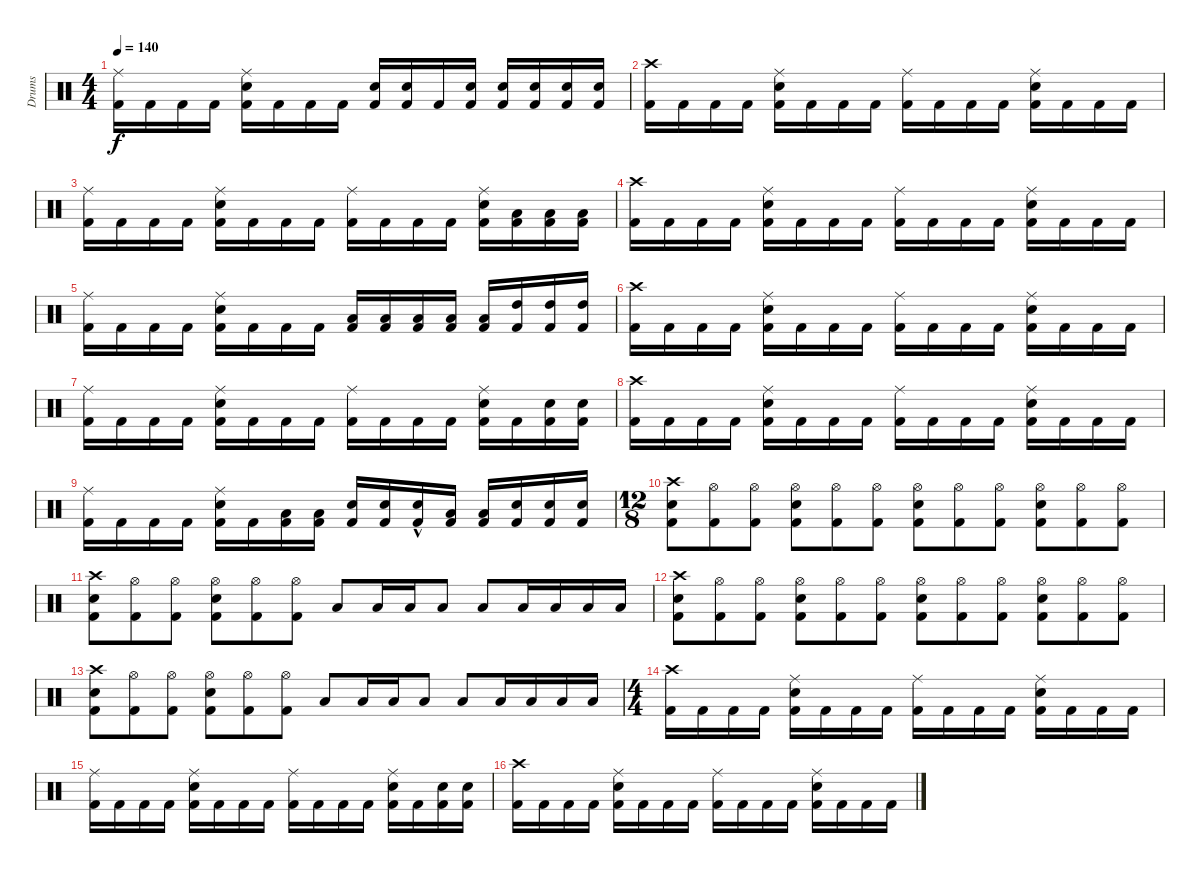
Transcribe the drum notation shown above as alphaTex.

\track ("Drums" "Drums") {instrument percussion}
\staff {score}
\articulation defaults
\ts (4 4)
\tempo 140
\clef neutral
\ks c
("Ride (middle)" "Kick (hit) 2").16{dy f} "Kick (hit) 2".16 "Kick (hit) 2".16 "Kick (hit) 2".16 ("Kick (hit) 2" "Ride (middle)" "Snare (hit) 2").16 "Kick (hit) 2".16 "Kick (hit) 2".16 "Kick (hit) 2".16 ("Snare (hit) 2" "Kick (hit) 2").16 ("Kick (hit) 2" "Snare (hit) 2").16 "Kick (hit) 2".16 ("Kick (hit) 2" "Snare (hit) 2").16 ("Snare (hit) 2" "Kick (hit) 2").16 ("Snare (hit) 2" "Kick (hit) 2").16 ("Snare (hit) 2" "Kick (hit) 2").16 ("Snare (hit) 2" "Kick (hit) 2").16 |
("Crash high (hit)" "Kick (hit) 2").16 "Kick (hit) 2".16 "Kick (hit) 2".16 "Kick (hit) 2".16 ("Kick (hit) 2" "Ride (middle)" "Snare (hit) 2").16 "Kick (hit) 2".16 "Kick (hit) 2".16 "Kick (hit) 2".16 ("Ride (middle)" "Kick (hit) 2").16 "Kick (hit) 2".16 "Kick (hit) 2".16 "Kick (hit) 2".16 ("Kick (hit) 2" "Ride (middle)" "Snare (hit) 2").16 "Kick (hit) 2".16 "Kick (hit) 2".16 "Kick (hit) 2".16 |
("Ride (middle)" "Kick (hit) 2").16 "Kick (hit) 2".16 "Kick (hit) 2".16 "Kick (hit) 2".16 ("Kick (hit) 2" "Ride (middle)" "Snare (hit) 2").16 "Kick (hit) 2".16 "Kick (hit) 2".16 "Kick (hit) 2".16 ("Ride (middle)" "Kick (hit) 2").16 "Kick (hit) 2".16 "Kick (hit) 2".16 "Kick (hit) 2".16 ("Kick (hit) 2" "Ride (middle)" "Snare (hit) 2").16 ("Low Tom (hit)" "Kick (hit) 2").16 ("Kick (hit) 2" "Low Tom (hit)").16 ("Low Tom (hit)" "Kick (hit) 2").16 |
("Crash high (hit)" "Kick (hit) 2").16 "Kick (hit) 2".16 "Kick (hit) 2".16 "Kick (hit) 2".16 ("Kick (hit) 2" "Ride (middle)" "Snare (hit) 2").16 "Kick (hit) 2".16 "Kick (hit) 2".16 "Kick (hit) 2".16 ("Ride (middle)" "Kick (hit) 2").16 "Kick (hit) 2".16 "Kick (hit) 2".16 "Kick (hit) 2".16 ("Kick (hit) 2" "Ride (middle)" "Snare (hit) 2").16 "Kick (hit) 2".16 "Kick (hit) 2".16 "Kick (hit) 2".16 |
("Ride (middle)" "Kick (hit) 2").16 "Kick (hit) 2".16 "Kick (hit) 2".16 "Kick (hit) 2".16 ("Kick (hit) 2" "Ride (middle)" "Snare (hit) 2").16 "Kick (hit) 2".16 "Kick (hit) 2".16 "Kick (hit) 2".16 ("Low Tom (hit)" "Kick (hit) 2").16 ("Kick (hit) 2" "Low Tom (hit)").16 ("Low Tom (hit)" "Kick (hit) 2").16 ("Low Tom (hit)" "Kick (hit) 2").16 ("Low Tom (hit)" "Kick (hit) 2").16 ("High Tom (hit)" "Kick (hit) 2").16 ("High Tom (hit)" "Kick (hit) 2").16 ("High Tom (hit)" "Kick (hit) 2").16 |
("Crash high (hit)" "Kick (hit) 2").16 "Kick (hit) 2".16 "Kick (hit) 2".16 "Kick (hit) 2".16 ("Kick (hit) 2" "Ride (middle)" "Snare (hit) 2").16 "Kick (hit) 2".16 "Kick (hit) 2".16 "Kick (hit) 2".16 ("Ride (middle)" "Kick (hit) 2").16 "Kick (hit) 2".16 "Kick (hit) 2".16 "Kick (hit) 2".16 ("Kick (hit) 2" "Ride (middle)" "Snare (hit) 2").16 "Kick (hit) 2".16 "Kick (hit) 2".16 "Kick (hit) 2".16 |
("Ride (middle)" "Kick (hit) 2").16 "Kick (hit) 2".16 "Kick (hit) 2".16 "Kick (hit) 2".16 ("Kick (hit) 2" "Ride (middle)" "Snare (hit) 2").16 "Kick (hit) 2".16 "Kick (hit) 2".16 "Kick (hit) 2".16 ("Ride (middle)" "Kick (hit) 2").16 "Kick (hit) 2".16 "Kick (hit) 2".16 "Kick (hit) 2".16 ("Kick (hit) 2" "Ride (middle)" "Snare (hit) 2").16 "Kick (hit) 2".16 ("Snare (hit) 2" "Kick (hit) 2").16 ("Kick (hit) 2" "Snare (hit) 2").16 |
("Crash high (hit)" "Kick (hit) 2").16 "Kick (hit) 2".16 "Kick (hit) 2".16 "Kick (hit) 2".16 ("Kick (hit) 2" "Ride (middle)" "Snare (hit) 2").16 "Kick (hit) 2".16 "Kick (hit) 2".16 "Kick (hit) 2".16 ("Ride (middle)" "Kick (hit) 2").16 "Kick (hit) 2".16 "Kick (hit) 2".16 "Kick (hit) 2".16 ("Kick (hit) 2" "Ride (middle)" "Snare (hit) 2").16 "Kick (hit) 2".16 "Kick (hit) 2".16 "Kick (hit) 2".16 |
("Ride (middle)" "Kick (hit) 2").16 "Kick (hit) 2".16 "Kick (hit) 2".16 "Kick (hit) 2".16 ("Kick (hit) 2" "Ride (middle)" "Snare (hit) 2").16 "Kick (hit) 2".16 ("Low Floor Tom (hit)" "Kick (hit) 2").16 ("Kick (hit) 2" "Low Floor Tom (hit)").16 ("Snare (hit) 2" "Kick (hit) 2").16 ("Snare (hit) 2" "Kick (hit) 2").16 ("Snare (hit) 2"{hac} "Kick (hit) 2").16 ("Low Tom (hit)" "Kick (hit) 2").16 ("Low Tom (hit)" "Kick (hit) 2").16 ("Snare (hit) 2" "Kick (hit) 2").16 ("Snare (hit) 2" "Kick (hit) 2").16 ("Snare (hit) 2" "Kick (hit) 2").16 |
\ts (12 8)
("Snare (hit) 2" "Crash high (hit)" "Kick (hit) 2").8 ("Kick (hit) 2" "Hi-Hat (open)").8 ("Hi-Hat (open)" "Kick (hit) 2").8 ("Snare (hit) 2" "Hi-Hat (open)" "Kick (hit) 2").8 ("Kick (hit) 2" "Hi-Hat (open)").8 ("Hi-Hat (open)" "Kick (hit) 2").8 ("Snare (hit) 2" "Hi-Hat (open)" "Kick (hit) 2").8 ("Kick (hit) 2" "Hi-Hat (open)").8 ("Hi-Hat (open)" "Kick (hit) 2").8 ("Snare (hit) 2" "Hi-Hat (open)" "Kick (hit) 2").8 ("Kick (hit) 2" "Hi-Hat (open)").8 ("Hi-Hat (open)" "Kick (hit) 2").8 |
("Snare (hit) 2" "Crash high (hit)" "Kick (hit) 2").8 ("Kick (hit) 2" "Hi-Hat (open)").8 ("Hi-Hat (open)" "Kick (hit) 2").8 ("Snare (hit) 2" "Hi-Hat (open)" "Kick (hit) 2").8 ("Kick (hit) 2" "Hi-Hat (open)").8 ("Hi-Hat (open)" "Kick (hit) 2").8 "Low Tom (hit)".8 "Low Tom (hit)".16 "Low Tom (hit)".16 "Low Tom (hit)".8 "Low Floor Tom (hit)".8 "Low Floor Tom (hit)".16 "Low Floor Tom (hit)".16 "Low Floor Tom (hit)".16 "Low Floor Tom (hit)".16 |
("Kick (hit) 2" "Crash high (hit)" "Snare (hit) 2").8 ("Kick (hit) 2" "Hi-Hat (open)").8 ("Hi-Hat (open)" "Kick (hit) 2").8 ("Snare (hit) 2" "Hi-Hat (open)" "Kick (hit) 2").8 ("Kick (hit) 2" "Hi-Hat (open)").8 ("Hi-Hat (open)" "Kick (hit) 2").8 ("Snare (hit) 2" "Hi-Hat (open)" "Kick (hit) 2").8 ("Kick (hit) 2" "Hi-Hat (open)").8 ("Hi-Hat (open)" "Kick (hit) 2").8 ("Snare (hit) 2" "Hi-Hat (open)" "Kick (hit) 2").8 ("Kick (hit) 2" "Hi-Hat (open)").8 ("Hi-Hat (open)" "Kick (hit) 2").8 |
("Snare (hit) 2" "Crash high (hit)" "Kick (hit) 2").8 ("Kick (hit) 2" "Hi-Hat (open)").8 ("Hi-Hat (open)" "Kick (hit) 2").8 ("Snare (hit) 2" "Hi-Hat (open)" "Kick (hit) 2").8 ("Kick (hit) 2" "Hi-Hat (open)").8 ("Hi-Hat (open)" "Kick (hit) 2").8 "Low Tom (hit)".8 "Low Tom (hit)".16 "Low Tom (hit)".16 "Low Tom (hit)".8 "Low Floor Tom (hit)".8 "Low Floor Tom (hit)".16 "Low Floor Tom (hit)".16 "Low Floor Tom (hit)".16 "Low Floor Tom (hit)".16 |
\ts (4 4)
("Crash high (hit)" "Kick (hit) 2").16 "Kick (hit) 2".16 "Kick (hit) 2".16 "Kick (hit) 2".16 ("Kick (hit) 2" "Ride (middle)" "Snare (hit) 2").16 "Kick (hit) 2".16 "Kick (hit) 2".16 "Kick (hit) 2".16 ("Ride (middle)" "Kick (hit) 2").16 "Kick (hit) 2".16 "Kick (hit) 2".16 "Kick (hit) 2".16 ("Kick (hit) 2" "Ride (middle)" "Snare (hit) 2").16 "Kick (hit) 2".16 "Kick (hit) 2".16 "Kick (hit) 2".16 |
("Ride (middle)" "Kick (hit) 2").16 "Kick (hit) 2".16 "Kick (hit) 2".16 "Kick (hit) 2".16 ("Kick (hit) 2" "Ride (middle)" "Snare (hit) 2").16 "Kick (hit) 2".16 "Kick (hit) 2".16 "Kick (hit) 2".16 ("Ride (middle)" "Kick (hit) 2").16 "Kick (hit) 2".16 "Kick (hit) 2".16 "Kick (hit) 2".16 ("Kick (hit) 2" "Ride (middle)" "Snare (hit) 2").16 "Kick (hit) 2".16 ("Snare (hit) 2" "Kick (hit) 2").16 ("Kick (hit) 2" "Snare (hit) 2").16 |
("Crash high (hit)" "Kick (hit) 2").16 "Kick (hit) 2".16 "Kick (hit) 2".16 "Kick (hit) 2".16 ("Kick (hit) 2" "Ride (middle)" "Snare (hit) 2").16 "Kick (hit) 2".16 "Kick (hit) 2".16 "Kick (hit) 2".16 ("Ride (middle)" "Kick (hit) 2").16 "Kick (hit) 2".16 "Kick (hit) 2".16 "Kick (hit) 2".16 ("Kick (hit) 2" "Ride (middle)" "Snare (hit) 2").16 "Kick (hit) 2".16 "Kick (hit) 2".16 "Kick (hit) 2".16
